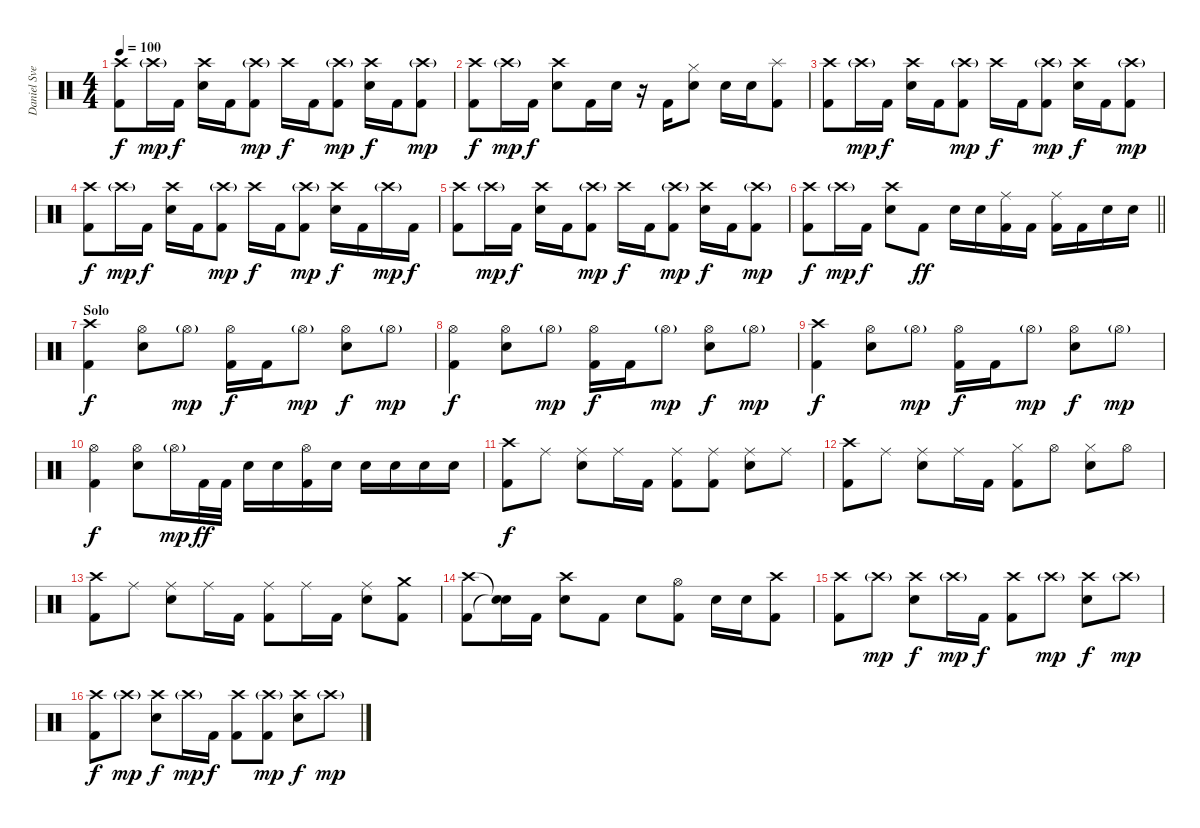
\track ("Daniel Svensson" "Daniel Sve") {instrument percussion}
\staff {score}
\articulation defaults
\ts (4 4)
\tempo 100
\clef neutral
\ks c
("Crash high (hit)" "Kick (hit) 2").8{dy f} "Crash high (hit)"{g}.16{dy mp} "Kick (hit) 2".16{dy f} ("Crash high (hit)" "Snare (hit) 2").16 "Kick (hit) 2".16 ("Crash high (hit)"{g} "Kick (hit) 2").8{dy mp} "Crash high (hit)".16{dy f} "Kick (hit) 2".16 ("Crash high (hit)"{g} "Kick (hit) 2").8{dy mp} ("Crash high (hit)" "Snare (hit) 2").16{dy f} "Kick (hit) 2".16 ("Crash high (hit)"{g} "Kick (hit) 2").8{dy mp} |
("Crash high (hit)" "Kick (hit) 2").8{dy f} "Crash high (hit)"{g}.16{dy mp} "Kick (hit) 2".16{dy f} ("Crash high (hit)" "Snare (hit) 2").8 "Kick (hit) 2".16 "Snare (hit) 2".16 r.16 "Kick (hit) 2".16 ("Hi-Hat (closed)" "Snare (hit) 2").8 "Snare (hit) 2".16 "Snare (hit) 2".16 ("Splash (hit)" "Kick (hit) 2").8 |
("Crash high (hit)" "Kick (hit) 2").8 "Crash high (hit)"{g}.16{dy mp} "Kick (hit) 2".16{dy f} ("Crash high (hit)" "Snare (hit) 2").16 "Kick (hit) 2".16 ("Crash high (hit)"{g} "Kick (hit) 2").8{dy mp} "Crash high (hit)".16{dy f} "Kick (hit) 2".16 ("Crash high (hit)"{g} "Kick (hit) 2").8{dy mp} ("Crash high (hit)" "Snare (hit) 2").16{dy f} "Kick (hit) 2".16 ("Crash high (hit)"{g} "Kick (hit) 2").8{dy mp} |
("Crash high (hit)" "Kick (hit) 2").8{dy f} "Crash high (hit)"{g}.16{dy mp} "Kick (hit) 2".16{dy f} ("Crash high (hit)" "Snare (hit) 2").16 "Kick (hit) 2".16 ("Crash high (hit)"{g} "Kick (hit) 2").8{dy mp} "Crash high (hit)".16{dy f} "Kick (hit) 2".16 ("Crash high (hit)"{g} "Kick (hit) 2").8{dy mp} ("Crash high (hit)" "Snare (hit) 2").16{dy f} "Kick (hit) 2".16 "Crash high (hit)"{g}.16{dy mp} "Kick (hit) 2".16{dy f} |
("Crash high (hit)" "Kick (hit) 2").8 "Crash high (hit)"{g}.16{dy mp} "Kick (hit) 2".16{dy f} ("Crash high (hit)" "Snare (hit) 2").16 "Kick (hit) 2".16 ("Crash high (hit)"{g} "Kick (hit) 2").8{dy mp} "Crash high (hit)".16{dy f} "Kick (hit) 2".16 ("Crash high (hit)"{g} "Kick (hit) 2").8{dy mp} ("Crash high (hit)" "Snare (hit) 2").16{dy f} "Kick (hit) 2".16 ("Crash high (hit)"{g} "Kick (hit) 2").8{dy mp} |
\barLineRight lightlight
("Crash high (hit)" "Kick (hit) 2").8{dy f} "Crash high (hit)"{g}.16{dy mp} "Kick (hit) 2".16{dy f} ("Crash high (hit)" "Snare (hit) 2").8 "Kick (hit) 2".8{dy ff} "Snare (hit) 2".16 "Snare (hit) 2".16 ("Ride (middle)" "Kick (hit) 2").16 "Kick (hit) 2".16 ("Ride (middle)" "Kick (hit) 2").16 "Kick (hit) 2".16 "Snare (hit) 2".16 "Snare (hit) 2".16 |
\section ("" "Solo")
("Crash high (hit)" "Kick (hit) 2").4{dy f} ("Hi-Hat (open)" "Snare (hit) 2").8 "Hi-Hat (open)"{g}.8{dy mp} ("Hi-Hat (open)" "Kick (hit) 2").16{dy f} "Kick (hit) 2".16 "Hi-Hat (open)"{g}.8{dy mp} ("Hi-Hat (open)" "Snare (hit) 2").8{dy f} "Hi-Hat (open)"{g}.8{dy mp} |
("Hi-Hat (open)" "Kick (hit) 2").4{dy f} ("Hi-Hat (open)" "Snare (hit) 2").8 "Hi-Hat (open)"{g}.8{dy mp} ("Hi-Hat (open)" "Kick (hit) 2").16{dy f} "Kick (hit) 2".16 "Hi-Hat (open)"{g}.8{dy mp} ("Hi-Hat (open)" "Snare (hit) 2").8{dy f} "Hi-Hat (open)"{g}.8{dy mp} |
("Crash high (hit)" "Kick (hit) 2").4{dy f} ("Hi-Hat (open)" "Snare (hit) 2").8 "Hi-Hat (open)"{g}.8{dy mp} ("Hi-Hat (open)" "Kick (hit) 2").16{dy f} "Kick (hit) 2".16 "Hi-Hat (open)"{g}.8{dy mp} ("Hi-Hat (open)" "Snare (hit) 2").8{dy f} "Hi-Hat (open)"{g}.8{dy mp} |
("Hi-Hat (open)" "Kick (hit) 2").4{dy f} ("Hi-Hat (open)" "Snare (hit) 2").8 "Hi-Hat (open)"{g}.16{dy mp} "Kick (hit) 2".32{dy ff} "Kick (hit) 2".32 "Snare (hit) 2".16 "Snare (hit) 2".16 ("Hi-Hat (open)" "Kick (hit) 2").16 "Snare (hit) 2".16 "Snare (hit) 2".16 "Snare (hit) 2".16 "Snare (hit) 2".16 "Snare (hit) 2".16 |
("Crash high (hit)" "Kick (hit) 2").8{dy f} "Ride (middle)".8 ("Ride (middle)" "Snare (hit) 2").8 "Ride (middle)".16 "Kick (hit) 2".16 ("Ride (middle)" "Kick (hit) 2").8 ("Ride (middle)" "Kick (hit) 2").8 ("Ride (middle)" "Snare (hit) 2").8 "Ride (middle)".8 |
("Crash high (hit)" "Kick (hit) 2").8 "Ride (middle)".8 ("Ride (middle)" "Snare (hit) 2").8 "Ride (middle)".16 "Kick (hit) 2".16 ("Hi-Hat (closed)" "Kick (hit) 2").8 "Hi-Hat (open)".8 ("Hi-Hat (closed)" "Snare (hit) 2").8 "Hi-Hat (open)".8 |
("Crash high (hit)" "Kick (hit) 2").8 "Ride (middle)".8 ("Ride (middle)" "Snare (hit) 2").8 "Ride (middle)".16 "Kick (hit) 2".16 ("Ride (middle)" "Kick (hit) 2").8 "Ride (middle)".16 "Kick (hit) 2".16 ("Ride (middle)" "Snare (hit) 2").8 ("Crash medium (hit)" "Kick (hit) 2").8 |
("Crash high (hit)" "Kick (hit) 2").8 ("Snare (hit)"{t} "Snare (hit)"{t}).16 "Kick (hit) 2".16 ("Crash high (hit)" "Snare (hit) 2").8 "Kick (hit) 2".8 "Snare (hit) 2".8 ("Hi-Hat (open)" "Kick (hit) 2").8 "Snare (hit) 2".16 "Snare (hit) 2".16 ("Crash high (hit)" "Kick (hit) 2").8 |
("Crash high (hit)" "Kick (hit) 2").8 "Crash high (hit)"{g}.8{dy mp} ("Crash high (hit)" "Snare (hit) 2").8{dy f} "Crash high (hit)"{g}.16{dy mp} "Kick (hit) 2".16{dy f} ("Crash high (hit)" "Kick (hit) 2").8 "Crash high (hit)"{g}.8{dy mp} ("Crash high (hit)" "Snare (hit) 2").8{dy f} "Crash high (hit)"{g}.8{dy mp} |
("Crash high (hit)" "Kick (hit) 2").8{dy f} "Crash high (hit)"{g}.8{dy mp} ("Crash high (hit)" "Snare (hit) 2").8{dy f} "Crash high (hit)"{g}.16{dy mp} "Kick (hit) 2".16{dy f} ("Crash high (hit)" "Kick (hit) 2").8 ("Crash high (hit)"{g} "Kick (hit) 2").8{dy mp} ("Crash high (hit)" "Snare (hit) 2").8{dy f} "Crash high (hit)"{g}.8{dy mp}
